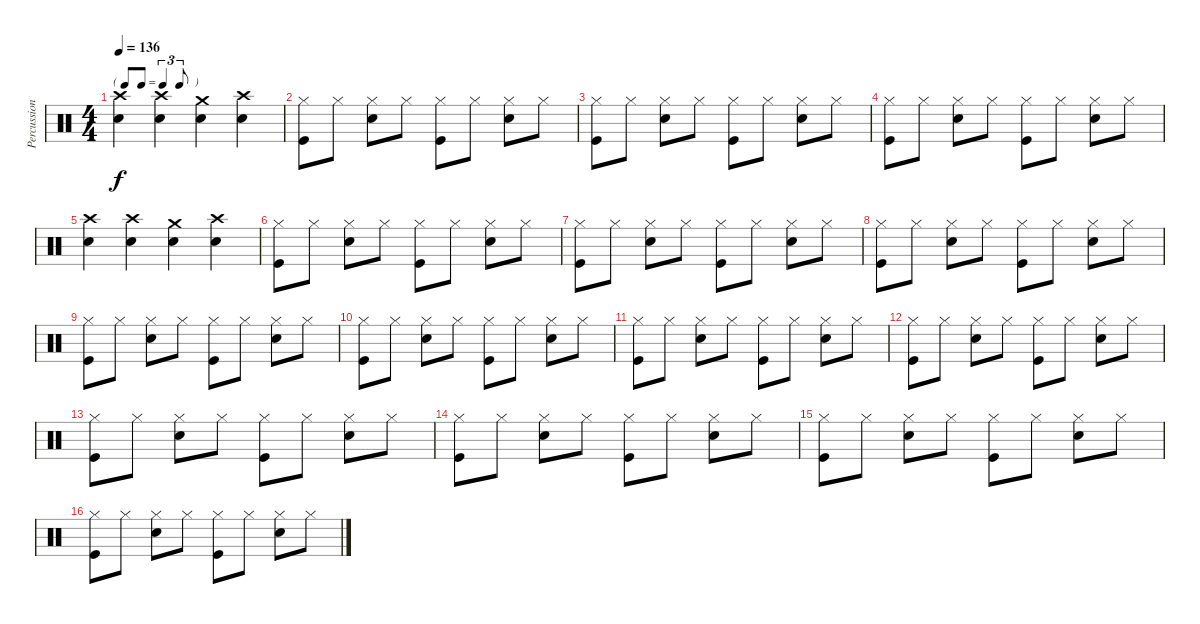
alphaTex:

\track ("Percussion" "Percussion") {instrument percussion}
\staff {score}
\articulation defaults
\ts (4 4)
\tf triplet8th
\tempo 136
\clef neutral
\ks c
("Crash high (hit)" "Snare (hit) 2").4{dy f} ("Crash high (hit)" "Snare (hit) 2").4 ("Crash medium (hit)" "Snare (hit) 2").4 ("Crash high (hit)" "Snare (hit) 2").4 |
("Hi-Hat (closed)" "Kick (hit)").8 "Hi-Hat (closed)".8 ("Hi-Hat (closed)" "Snare (hit) 2").8 "Hi-Hat (closed)".8 ("Hi-Hat (closed)" "Kick (hit)").8 "Hi-Hat (closed)".8 ("Hi-Hat (closed)" "Snare (hit) 2").8 "Hi-Hat (closed)".8 |
("Hi-Hat (closed)" "Kick (hit)").8 "Hi-Hat (closed)".8 ("Hi-Hat (closed)" "Snare (hit) 2").8 "Hi-Hat (closed)".8 ("Hi-Hat (closed)" "Kick (hit)").8 "Hi-Hat (closed)".8 ("Hi-Hat (closed)" "Snare (hit) 2").8 "Hi-Hat (closed)".8 |
("Hi-Hat (closed)" "Kick (hit)").8 "Hi-Hat (closed)".8 ("Hi-Hat (closed)" "Snare (hit) 2").8 "Hi-Hat (closed)".8 ("Hi-Hat (closed)" "Kick (hit)").8 "Hi-Hat (closed)".8 ("Hi-Hat (closed)" "Snare (hit) 2").8 "Hi-Hat (closed)".8 |
("Crash high (hit)" "Snare (hit) 2").4 ("Crash high (hit)" "Snare (hit) 2").4 ("Crash medium (hit)" "Snare (hit) 2").4 ("Crash high (hit)" "Snare (hit) 2").4 |
("Hi-Hat (closed)" "Kick (hit)").8 "Hi-Hat (closed)".8 ("Hi-Hat (closed)" "Snare (hit) 2").8 "Hi-Hat (closed)".8 ("Hi-Hat (closed)" "Kick (hit)").8 "Hi-Hat (closed)".8 ("Hi-Hat (closed)" "Snare (hit) 2").8 "Hi-Hat (closed)".8 |
("Hi-Hat (closed)" "Kick (hit)").8 "Hi-Hat (closed)".8 ("Hi-Hat (closed)" "Snare (hit) 2").8 "Hi-Hat (closed)".8 ("Hi-Hat (closed)" "Kick (hit)").8 "Hi-Hat (closed)".8 ("Hi-Hat (closed)" "Snare (hit) 2").8 "Hi-Hat (closed)".8 |
("Hi-Hat (closed)" "Kick (hit)").8 "Hi-Hat (closed)".8 ("Hi-Hat (closed)" "Snare (hit) 2").8 "Hi-Hat (closed)".8 ("Hi-Hat (closed)" "Kick (hit)").8 "Hi-Hat (closed)".8 ("Hi-Hat (closed)" "Snare (hit) 2").8 "Hi-Hat (closed)".8 |
("Hi-Hat (closed)" "Kick (hit)").8 "Hi-Hat (closed)".8 ("Hi-Hat (closed)" "Snare (hit) 2").8 "Hi-Hat (closed)".8 ("Hi-Hat (closed)" "Kick (hit)").8 "Hi-Hat (closed)".8 ("Hi-Hat (closed)" "Snare (hit) 2").8 "Hi-Hat (closed)".8 |
("Hi-Hat (closed)" "Kick (hit)").8 "Hi-Hat (closed)".8 ("Hi-Hat (closed)" "Snare (hit) 2").8 "Hi-Hat (closed)".8 ("Hi-Hat (closed)" "Kick (hit)").8 "Hi-Hat (closed)".8 ("Hi-Hat (closed)" "Snare (hit) 2").8 "Hi-Hat (closed)".8 |
("Hi-Hat (closed)" "Kick (hit)").8 "Hi-Hat (closed)".8 ("Hi-Hat (closed)" "Snare (hit) 2").8 "Hi-Hat (closed)".8 ("Hi-Hat (closed)" "Kick (hit)").8 "Hi-Hat (closed)".8 ("Hi-Hat (closed)" "Snare (hit) 2").8 "Hi-Hat (closed)".8 |
("Hi-Hat (closed)" "Kick (hit)").8 "Hi-Hat (closed)".8 ("Hi-Hat (closed)" "Snare (hit) 2").8 "Hi-Hat (closed)".8 ("Hi-Hat (closed)" "Kick (hit)").8 "Hi-Hat (closed)".8 ("Hi-Hat (closed)" "Snare (hit) 2").8 "Hi-Hat (closed)".8 |
("Hi-Hat (closed)" "Kick (hit)").8 "Hi-Hat (closed)".8 ("Hi-Hat (closed)" "Snare (hit) 2").8 "Hi-Hat (closed)".8 ("Hi-Hat (closed)" "Kick (hit)").8 "Hi-Hat (closed)".8 ("Hi-Hat (closed)" "Snare (hit) 2").8 "Hi-Hat (closed)".8 |
("Hi-Hat (closed)" "Kick (hit)").8 "Hi-Hat (closed)".8 ("Hi-Hat (closed)" "Snare (hit) 2").8 "Hi-Hat (closed)".8 ("Hi-Hat (closed)" "Kick (hit)").8 "Hi-Hat (closed)".8 ("Hi-Hat (closed)" "Snare (hit) 2").8 "Hi-Hat (closed)".8 |
("Hi-Hat (closed)" "Kick (hit)").8 "Hi-Hat (closed)".8 ("Hi-Hat (closed)" "Snare (hit) 2").8 "Hi-Hat (closed)".8 ("Hi-Hat (closed)" "Kick (hit)").8 "Hi-Hat (closed)".8 ("Hi-Hat (closed)" "Snare (hit) 2").8 "Hi-Hat (closed)".8 |
("Hi-Hat (closed)" "Kick (hit)").8 "Hi-Hat (closed)".8 ("Hi-Hat (closed)" "Snare (hit) 2").8 "Hi-Hat (closed)".8 ("Hi-Hat (closed)" "Kick (hit)").8 "Hi-Hat (closed)".8 ("Hi-Hat (closed)" "Snare (hit) 2").8 "Hi-Hat (closed)".8
